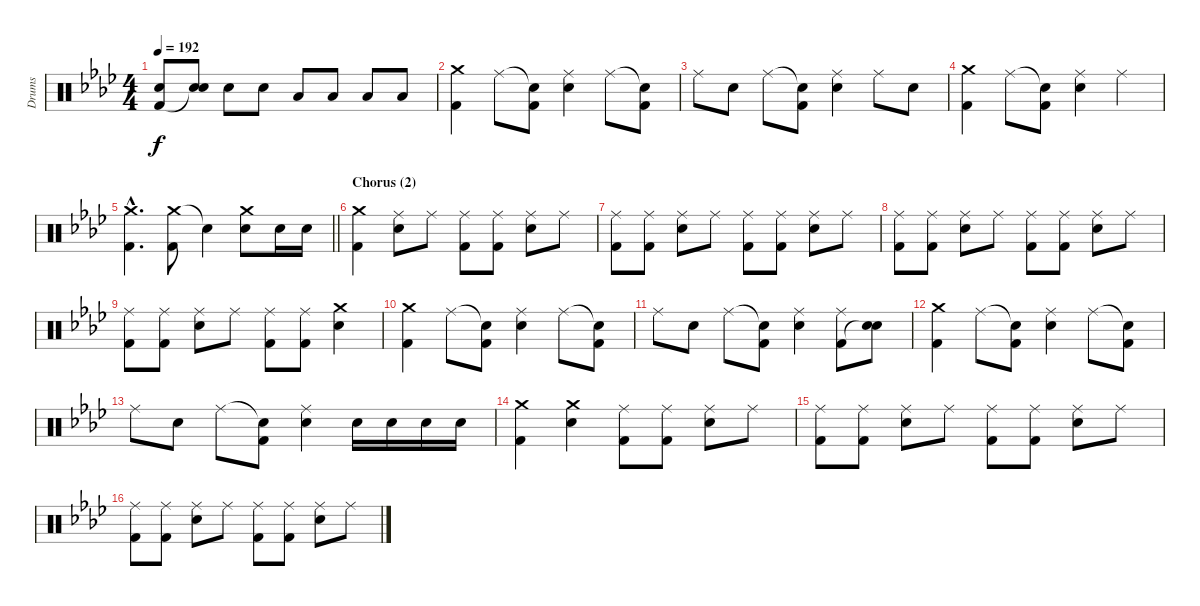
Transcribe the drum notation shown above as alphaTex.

\track ("Drums" "Drums") {instrument percussion}
\staff {score}
\articulation defaults
\ts (4 4)
\tempo 192
\clef neutral
\ks ab
("Electric Snare (hit)" "Kick (hit) 2").8{dy f} ("Electric Snare (hit)" "Snare (hit)"{t}).8 "Electric Snare (hit)".8 "Electric Snare (hit)".8 "Low Tom (hit)".8 "Low Tom (hit)".8 "Low Floor Tom (hit)".8 "Low Floor Tom (hit)".8 |
("Crash medium (hit)" "Kick (hit) 2").4 "Ride (middle)".8 ("Snare (hit)"{t} "Kick (hit) 2").8 ("Ride (middle)" "Electric Snare (hit)").4 "Ride (middle)".8 ("Snare (hit)"{t} "Kick (hit) 2").8 |
"Ride (middle)".8 "Electric Snare (hit)".8 "Ride (middle)".8 ("Snare (hit)"{t} "Kick (hit) 2").8 ("Ride (middle)" "Electric Snare (hit)").4 "Ride (middle)".8 "Electric Snare (hit)".8 |
("Crash medium (hit)" "Kick (hit) 2").4 "Ride (middle)".8 ("Snare (hit)"{t} "Kick (hit) 2").8 ("Ride (middle)" "Electric Snare (hit)").4 "Ride (middle)".4 |
\barLineRight lightlight
("Crash medium (hit)"{hac} "Kick (hit) 2"{hac}).4{d} ("Crash medium (hit)" "Kick (hit) 2").8 "Snare (hit)"{t}.4 ("Crash medium (hit)" "Electric Snare (hit)").8 "Electric Snare (hit)".16 "Electric Snare (hit)".16 |
\section ("" "Chorus (2)")
("Crash medium (hit)" "Kick (hit) 2").4 ("Ride (middle)" "Electric Snare (hit)").8 "Ride (middle)".8 ("Ride (middle)" "Kick (hit) 2").8 ("Ride (middle)" "Kick (hit) 2").8 ("Ride (middle)" "Electric Snare (hit)").8 "Ride (middle)".8 |
("Ride (middle)" "Kick (hit) 2").8 ("Ride (middle)" "Kick (hit) 2").8 ("Ride (middle)" "Electric Snare (hit)").8 "Ride (middle)".8 ("Ride (middle)" "Kick (hit) 2").8 ("Ride (middle)" "Kick (hit) 2").8 ("Ride (middle)" "Electric Snare (hit)").8 "Ride (middle)".8 |
("Ride (middle)" "Kick (hit) 2").8 ("Ride (middle)" "Kick (hit) 2").8 ("Ride (middle)" "Electric Snare (hit)").8 "Ride (middle)".8 ("Ride (middle)" "Kick (hit) 2").8 ("Ride (middle)" "Kick (hit) 2").8 ("Ride (middle)" "Electric Snare (hit)").8 "Ride (middle)".8 |
("Ride (middle)" "Kick (hit) 2").8 ("Ride (middle)" "Kick (hit) 2").8 ("Ride (middle)" "Electric Snare (hit)").8 "Ride (middle)".8 ("Ride (middle)" "Kick (hit) 2").8 ("Ride (middle)" "Kick (hit) 2").8 ("Crash medium (hit)" "Electric Snare (hit)").4 |
("Crash medium (hit)" "Kick (hit) 2").4 "Ride (middle)".8 ("Snare (hit)"{t} "Kick (hit) 2").8 ("Ride (middle)" "Electric Snare (hit)").4 "Ride (middle)".8 ("Snare (hit)"{t} "Kick (hit) 2").8 |
"Ride (middle)".8 "Electric Snare (hit)".8 "Ride (middle)".8 ("Snare (hit)"{t} "Kick (hit) 2").8 ("Ride (middle)" "Electric Snare (hit)").4 ("Ride (middle)" "Kick (hit) 2").8 ("Electric Snare (hit)" "Snare (hit)"{t}).8 |
("Crash medium (hit)" "Kick (hit) 2").4 "Ride (middle)".8 ("Snare (hit)"{t} "Kick (hit) 2").8 ("Ride (middle)" "Electric Snare (hit)").4 "Ride (middle)".8 ("Snare (hit)"{t} "Kick (hit) 2").8 |
"Ride (middle)".8 "Electric Snare (hit)".8 "Ride (middle)".8 ("Snare (hit)"{t} "Kick (hit) 2").8 ("Ride (middle)" "Electric Snare (hit)").4 "Electric Snare (hit)".16 "Electric Snare (hit)".16 "Electric Snare (hit)".16 "Electric Snare (hit)".16 |
("Crash medium (hit)" "Kick (hit) 2").4 ("Crash medium (hit)" "Electric Snare (hit)").4 ("Ride (middle)" "Kick (hit) 2").8 ("Ride (middle)" "Kick (hit) 2").8 ("Ride (middle)" "Electric Snare (hit)").8 "Ride (middle)".8 |
("Ride (middle)" "Kick (hit) 2").8 ("Ride (middle)" "Kick (hit) 2").8 ("Ride (middle)" "Electric Snare (hit)").8 "Ride (middle)".8 ("Ride (middle)" "Kick (hit) 2").8 ("Ride (middle)" "Kick (hit) 2").8 ("Ride (middle)" "Electric Snare (hit)").8 "Ride (middle)".8 |
("Ride (middle)" "Kick (hit) 2").8 ("Ride (middle)" "Kick (hit) 2").8 ("Ride (middle)" "Electric Snare (hit)").8 "Ride (middle)".8 ("Ride (middle)" "Kick (hit) 2").8 ("Ride (middle)" "Kick (hit) 2").8 ("Ride (middle)" "Electric Snare (hit)").8 "Ride (middle)".8
